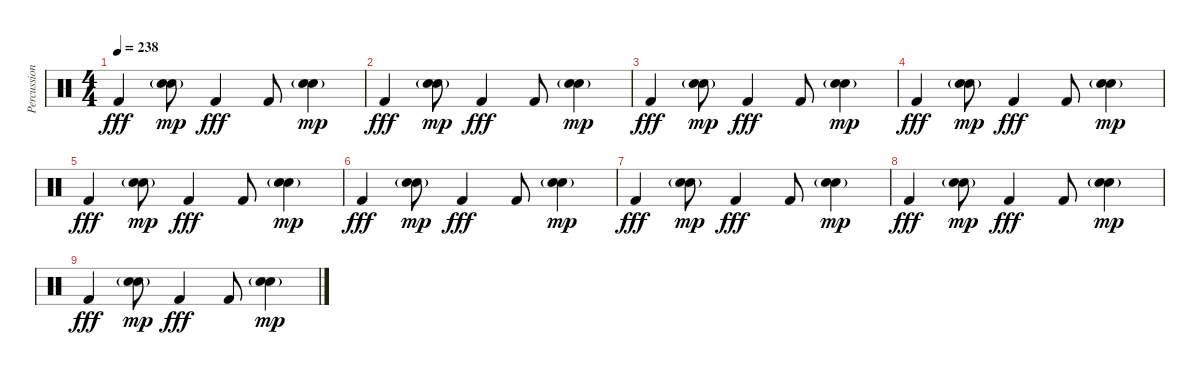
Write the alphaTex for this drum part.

\track ("Percussion" "Percussion") {instrument percussion}
\staff {score}
\articulation defaults
\ts (4 4)
\tempo 238
\clef neutral
\ks c "Kick (hit) 2".4{dy fff}
("Hand Clap (hit)"{g} "Hand Clap (hit)"{g}).8{bd 480 dy mp} "Kick (hit) 2".4{dy fff} "Kick (hit) 2".8 ("Hand Clap (hit)"{g} "Hand Clap (hit)"{g}).4{bd 480 dy mp} |
"Kick (hit) 2".4{dy fff} ("Hand Clap (hit)"{g} "Hand Clap (hit)"{g}).8{bd 480 dy mp} "Kick (hit) 2".4{dy fff} "Kick (hit) 2".8 ("Hand Clap (hit)"{g} "Hand Clap (hit)"{g}).4{bd 480 dy mp} |
"Kick (hit) 2".4{dy fff} ("Hand Clap (hit)"{g} "Hand Clap (hit)"{g}).8{bd 480 dy mp} "Kick (hit) 2".4{dy fff} "Kick (hit) 2".8 ("Hand Clap (hit)"{g} "Hand Clap (hit)"{g}).4{bd 480 dy mp} |
"Kick (hit) 2".4{dy fff} ("Hand Clap (hit)"{g} "Hand Clap (hit)"{g}).8{bd 480 dy mp} "Kick (hit) 2".4{dy fff} "Kick (hit) 2".8 ("Hand Clap (hit)"{g} "Hand Clap (hit)"{g}).4{bd 480 dy mp} |
"Kick (hit) 2".4{dy fff} ("Hand Clap (hit)"{g} "Hand Clap (hit)"{g}).8{bd 480 dy mp} "Kick (hit) 2".4{dy fff} "Kick (hit) 2".8 ("Hand Clap (hit)"{g} "Hand Clap (hit)"{g}).4{bd 480 dy mp} |
"Kick (hit) 2".4{dy fff} ("Hand Clap (hit)"{g} "Hand Clap (hit)"{g}).8{bd 480 dy mp} "Kick (hit) 2".4{dy fff} "Kick (hit) 2".8 ("Hand Clap (hit)"{g} "Hand Clap (hit)"{g}).4{bd 480 dy mp} |
"Kick (hit) 2".4{dy fff} ("Hand Clap (hit)"{g} "Hand Clap (hit)"{g}).8{bd 480 dy mp} "Kick (hit) 2".4{dy fff} "Kick (hit) 2".8 ("Hand Clap (hit)"{g} "Hand Clap (hit)"{g}).4{bd 480 dy mp} |
"Kick (hit) 2".4{dy fff} ("Hand Clap (hit)"{g} "Hand Clap (hit)"{g}).8{bd 480 dy mp} "Kick (hit) 2".4{dy fff} "Kick (hit) 2".8 ("Hand Clap (hit)"{g} "Hand Clap (hit)"{g}).4{bd 480 dy mp} |
"Kick (hit) 2".4{dy fff} ("Hand Clap (hit)"{g} "Hand Clap (hit)"{g}).8{bd 480 dy mp} "Kick (hit) 2".4{dy fff} "Kick (hit) 2".8 ("Hand Clap (hit)"{g} "Hand Clap (hit)"{g}).4{bd 480 dy mp}
